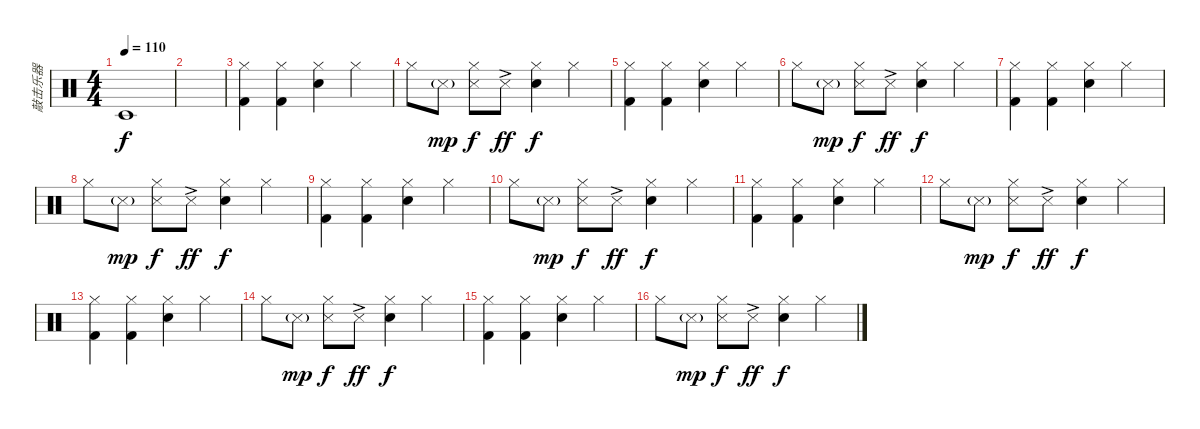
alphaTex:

\track ("敲击乐器" "敲击乐器") {instrument percussion}
\staff {score}
\articulation defaults
\ts (4 4)
\tempo 110
\clef neutral
\ks c "Timbale low (hit)".1{dy f}
|
|
("Kick (hit) 2" "Hi-Hat (closed)").4 ("Kick (hit) 2" "Hi-Hat (closed)").4 ("Snare (hit) 2" "Hi-Hat (closed)").4 "Hi-Hat (closed)".4 |
"Hi-Hat (closed)".8 "Metronome (hit)"{g}.8{dy mp} ("Metronome (hit)" "Hi-Hat (closed)").8{dy f} "Metronome (hit)"{ac}.8{dy ff} ("Snare (hit) 2" "Hi-Hat (closed)").4{dy f} "Hi-Hat (closed)".4 |
("Kick (hit) 2" "Hi-Hat (closed)").4 ("Kick (hit) 2" "Hi-Hat (closed)").4 ("Snare (hit) 2" "Hi-Hat (closed)").4 "Hi-Hat (closed)".4 |
"Hi-Hat (closed)".8 "Metronome (hit)"{g}.8{dy mp} ("Metronome (hit)" "Hi-Hat (closed)").8{dy f} "Metronome (hit)"{ac}.8{dy ff} ("Snare (hit) 2" "Hi-Hat (closed)").4{dy f} "Hi-Hat (closed)".4 |
("Kick (hit) 2" "Hi-Hat (closed)").4 ("Kick (hit) 2" "Hi-Hat (closed)").4 ("Snare (hit) 2" "Hi-Hat (closed)").4 "Hi-Hat (closed)".4 |
"Hi-Hat (closed)".8 "Metronome (hit)"{g}.8{dy mp} ("Metronome (hit)" "Hi-Hat (closed)").8{dy f} "Metronome (hit)"{ac}.8{dy ff} ("Snare (hit) 2" "Hi-Hat (closed)").4{dy f} "Hi-Hat (closed)".4 |
("Kick (hit) 2" "Hi-Hat (closed)").4 ("Kick (hit) 2" "Hi-Hat (closed)").4 ("Snare (hit) 2" "Hi-Hat (closed)").4 "Hi-Hat (closed)".4 |
"Hi-Hat (closed)".8 "Metronome (hit)"{g}.8{dy mp} ("Metronome (hit)" "Hi-Hat (closed)").8{dy f} "Metronome (hit)"{ac}.8{dy ff} ("Snare (hit) 2" "Hi-Hat (closed)").4{dy f} "Hi-Hat (closed)".4 |
("Kick (hit) 2" "Hi-Hat (closed)").4 ("Kick (hit) 2" "Hi-Hat (closed)").4 ("Snare (hit) 2" "Hi-Hat (closed)").4 "Hi-Hat (closed)".4 |
"Hi-Hat (closed)".8 "Metronome (hit)"{g}.8{dy mp} ("Metronome (hit)" "Hi-Hat (closed)").8{dy f} "Metronome (hit)"{ac}.8{dy ff} ("Snare (hit) 2" "Hi-Hat (closed)").4{dy f} "Hi-Hat (closed)".4 |
("Kick (hit) 2" "Hi-Hat (closed)").4 ("Kick (hit) 2" "Hi-Hat (closed)").4 ("Snare (hit) 2" "Hi-Hat (closed)").4 "Hi-Hat (closed)".4 |
"Hi-Hat (closed)".8 "Metronome (hit)"{g}.8{dy mp} ("Metronome (hit)" "Hi-Hat (closed)").8{dy f} "Metronome (hit)"{ac}.8{dy ff} ("Snare (hit) 2" "Hi-Hat (closed)").4{dy f} "Hi-Hat (closed)".4 |
("Kick (hit) 2" "Hi-Hat (closed)").4 ("Kick (hit) 2" "Hi-Hat (closed)").4 ("Snare (hit) 2" "Hi-Hat (closed)").4 "Hi-Hat (closed)".4 |
"Hi-Hat (closed)".8 "Metronome (hit)"{g}.8{dy mp} ("Metronome (hit)" "Hi-Hat (closed)").8{dy f} "Metronome (hit)"{ac}.8{dy ff} ("Snare (hit) 2" "Hi-Hat (closed)").4{dy f} "Hi-Hat (closed)".4
